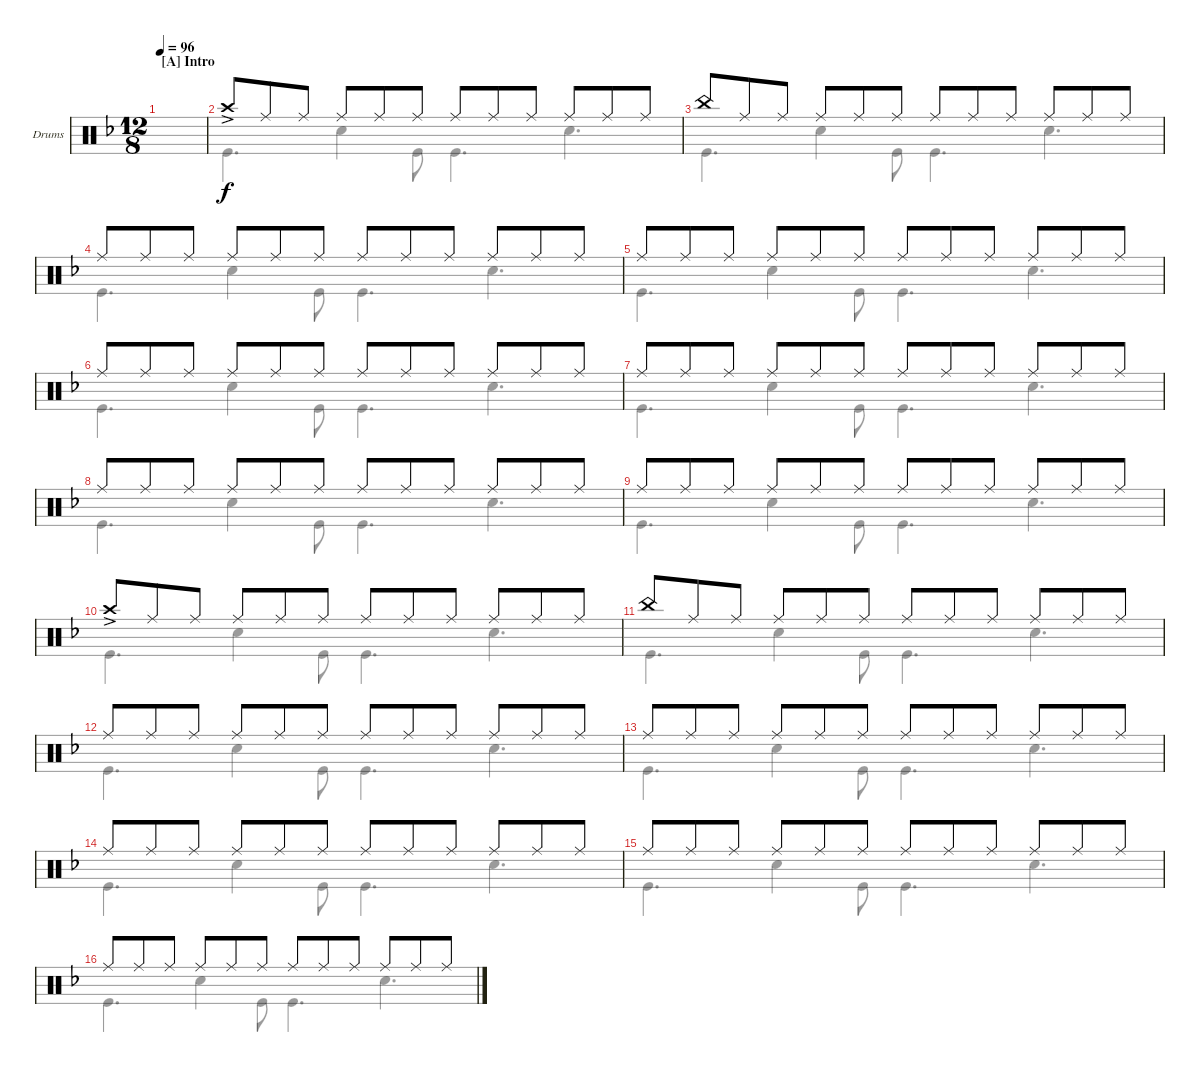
\defaultSystemsLayout 4
\bracketExtendMode nobrackets
\firstSystemTrackNameOrientation horizontal
\otherSystemsTrackNameOrientation horizontal
\track ("Drumkit" "Drums") {multiBarRest instrument percussion}
\staff {score}
\articulation defaults
\voice
\ts (12 8)
\section ("A" "Intro")
\ac
\tempo 96
\clef neutral
\ks dminor
|
"Crash high (hit)"{ac}.8 "Ride (middle)".8 "Ride (middle)".8 "Ride (middle)".8 "Ride (middle)".8 "Ride (middle)".8 "Ride (middle)".8 "Ride (middle)".8 "Ride (middle)".8 "Ride (middle)".8 "Ride (middle)".8 "Ride (middle)".8 |
"China (hit)".8 "Ride (middle)".8 "Ride (middle)".8 "Ride (middle)".8 "Ride (middle)".8 "Ride (middle)".8 "Ride (middle)".8 "Ride (middle)".8 "Ride (middle)".8 "Ride (middle)".8 "Ride (middle)".8 "Ride (middle)".8 |
"Ride (middle)".8 "Ride (middle)".8 "Ride (middle)".8 "Ride (middle)".8 "Ride (middle)".8 "Ride (middle)".8 "Ride (middle)".8 "Ride (middle)".8 "Ride (middle)".8 "Ride (middle)".8 "Ride (middle)".8 "Ride (middle)".8 |
"Ride (middle)".8 "Ride (middle)".8 "Ride (middle)".8 "Ride (middle)".8 "Ride (middle)".8 "Ride (middle)".8 "Ride (middle)".8 "Ride (middle)".8 "Ride (middle)".8 "Ride (middle)".8 "Ride (middle)".8 "Ride (middle)".8 |
"Ride (middle)".8 "Ride (middle)".8 "Ride (middle)".8 "Ride (middle)".8 "Ride (middle)".8 "Ride (middle)".8 "Ride (middle)".8 "Ride (middle)".8 "Ride (middle)".8 "Ride (middle)".8 "Ride (middle)".8 "Ride (middle)".8 |
"Ride (middle)".8 "Ride (middle)".8 "Ride (middle)".8 "Ride (middle)".8 "Ride (middle)".8 "Ride (middle)".8 "Ride (middle)".8 "Ride (middle)".8 "Ride (middle)".8 "Ride (middle)".8 "Ride (middle)".8 "Ride (middle)".8 |
"Ride (middle)".8 "Ride (middle)".8 "Ride (middle)".8 "Ride (middle)".8 "Ride (middle)".8 "Ride (middle)".8 "Ride (middle)".8 "Ride (middle)".8 "Ride (middle)".8 "Ride (middle)".8 "Ride (middle)".8 "Ride (middle)".8 |
"Ride (middle)".8 "Ride (middle)".8 "Ride (middle)".8 "Ride (middle)".8 "Ride (middle)".8 "Ride (middle)".8 "Ride (middle)".8 "Ride (middle)".8 "Ride (middle)".8 "Ride (middle)".8 "Ride (middle)".8 "Ride (middle)".8 |
"Crash high (hit)"{ac}.8 "Ride (middle)".8 "Ride (middle)".8 "Ride (middle)".8 "Ride (middle)".8 "Ride (middle)".8 "Ride (middle)".8 "Ride (middle)".8 "Ride (middle)".8 "Ride (middle)".8 "Ride (middle)".8 "Ride (middle)".8 |
"China (hit)".8 "Ride (middle)".8 "Ride (middle)".8 "Ride (middle)".8 "Ride (middle)".8 "Ride (middle)".8 "Ride (middle)".8 "Ride (middle)".8 "Ride (middle)".8 "Ride (middle)".8 "Ride (middle)".8 "Ride (middle)".8 |
"Ride (middle)".8 "Ride (middle)".8 "Ride (middle)".8 "Ride (middle)".8 "Ride (middle)".8 "Ride (middle)".8 "Ride (middle)".8 "Ride (middle)".8 "Ride (middle)".8 "Ride (middle)".8 "Ride (middle)".8 "Ride (middle)".8 |
"Ride (middle)".8 "Ride (middle)".8 "Ride (middle)".8 "Ride (middle)".8 "Ride (middle)".8 "Ride (middle)".8 "Ride (middle)".8 "Ride (middle)".8 "Ride (middle)".8 "Ride (middle)".8 "Ride (middle)".8 "Ride (middle)".8 |
"Ride (middle)".8 "Ride (middle)".8 "Ride (middle)".8 "Ride (middle)".8 "Ride (middle)".8 "Ride (middle)".8 "Ride (middle)".8 "Ride (middle)".8 "Ride (middle)".8 "Ride (middle)".8 "Ride (middle)".8 "Ride (middle)".8 |
"Ride (middle)".8 "Ride (middle)".8 "Ride (middle)".8 "Ride (middle)".8 "Ride (middle)".8 "Ride (middle)".8 "Ride (middle)".8 "Ride (middle)".8 "Ride (middle)".8 "Ride (middle)".8 "Ride (middle)".8 "Ride (middle)".8 |
"Ride (middle)".8 "Ride (middle)".8 "Ride (middle)".8 "Ride (middle)".8 "Ride (middle)".8 "Ride (middle)".8 "Ride (middle)".8 "Ride (middle)".8 "Ride (middle)".8 "Ride (middle)".8 "Ride (middle)".8 "Ride (middle)".8
\voice
\clef neutral
\ottava regular
\simile none
\ks dminor
|
"Kick (hit)".4{d} "Snare (hit) 2".4 "Kick (hit)".8 "Kick (hit)".4{d} "Snare (hit) 2".4{d} |
"Kick (hit)".4{d} "Snare (hit) 2".4 "Kick (hit)".8 "Kick (hit)".4{d} "Snare (hit) 2".4{d} |
"Kick (hit)".4{d} "Snare (hit) 2".4 "Kick (hit)".8 "Kick (hit)".4{d} "Snare (hit) 2".4{d} |
"Kick (hit)".4{d} "Snare (hit) 2".4 "Kick (hit)".8 "Kick (hit)".4{d} "Snare (hit) 2".4{d} |
"Kick (hit)".4{d} "Snare (hit) 2".4 "Kick (hit)".8 "Kick (hit)".4{d} "Snare (hit) 2".4{d} |
"Kick (hit)".4{d} "Snare (hit) 2".4 "Kick (hit)".8 "Kick (hit)".4{d} "Snare (hit) 2".4{d} |
"Kick (hit)".4{d} "Snare (hit) 2".4 "Kick (hit)".8 "Kick (hit)".4{d} "Snare (hit) 2".4{d} |
"Kick (hit)".4{d} "Snare (hit) 2".4 "Kick (hit)".8 "Kick (hit)".4{d} "Snare (hit) 2".4{d} |
"Kick (hit)".4{d} "Snare (hit) 2".4 "Kick (hit)".8 "Kick (hit)".4{d} "Snare (hit) 2".4{d} |
"Kick (hit)".4{d} "Snare (hit) 2".4 "Kick (hit)".8 "Kick (hit)".4{d} "Snare (hit) 2".4{d} |
"Kick (hit)".4{d} "Snare (hit) 2".4 "Kick (hit)".8 "Kick (hit)".4{d} "Snare (hit) 2".4{d} |
"Kick (hit)".4{d} "Snare (hit) 2".4 "Kick (hit)".8 "Kick (hit)".4{d} "Snare (hit) 2".4{d} |
"Kick (hit)".4{d} "Snare (hit) 2".4 "Kick (hit)".8 "Kick (hit)".4{d} "Snare (hit) 2".4{d} |
"Kick (hit)".4{d} "Snare (hit) 2".4 "Kick (hit)".8 "Kick (hit)".4{d} "Snare (hit) 2".4{d} |
"Kick (hit)".4{d} "Snare (hit) 2".4 "Kick (hit)".8 "Kick (hit)".4{d} "Snare (hit) 2".4{d}
